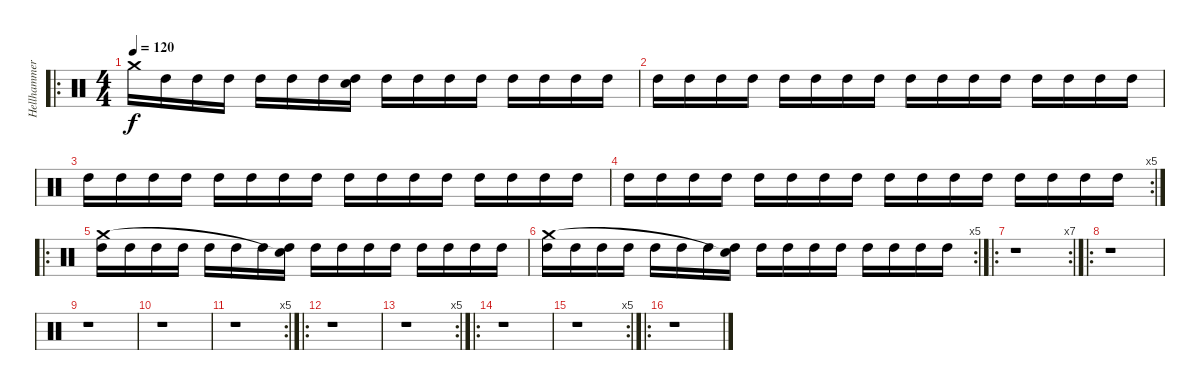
\track ("Hellhammer - Drums" "Hellhammer") {instrument percussion}
\staff {score}
\articulation defaults
\ro
\ts (4 4)
\tempo 120
\clef neutral
\ks c "Crash medium (hit)".16{dy f} "High Tom (hit)".16 "High Tom (hit)".16 "High Tom (hit)".16 "High Tom (hit)".16 "High Tom (hit)".16 "High Tom (hit)".16
("High Tom (hit)" "Snare (hit)").16 "High Tom (hit)".16 "High Tom (hit)".16 "High Tom (hit)".16 "High Tom (hit)".16 "High Tom (hit)".16 "High Tom (hit)".16 "High Tom (hit)".16 "High Tom (hit)".16 |
"High Tom (hit)".16 "High Tom (hit)".16 "High Tom (hit)".16 "High Tom (hit)".16 "High Tom (hit)".16 "High Tom (hit)".16 "High Tom (hit)".16 "High Tom (hit)".16 "High Tom (hit)".16 "High Tom (hit)".16 "High Tom (hit)".16 "High Tom (hit)".16 "High Tom (hit)".16 "High Tom (hit)".16 "High Tom (hit)".16 "High Tom (hit)".16 |
"High Tom (hit)".16 "High Tom (hit)".16 "High Tom (hit)".16 "High Tom (hit)".16 "High Tom (hit)".16 "High Tom (hit)".16 "High Tom (hit)".16 "High Tom (hit)".16 "High Tom (hit)".16 "High Tom (hit)".16 "High Tom (hit)".16 "High Tom (hit)".16 "High Tom (hit)".16 "High Tom (hit)".16 "High Tom (hit)".16 "High Tom (hit)".16 |
\rc 5 "High Tom (hit)".16 "High Tom (hit)".16 "High Tom (hit)".16 "High Tom (hit)".16 "High Tom (hit)".16 "High Tom (hit)".16 "High Tom (hit)".16 "High Tom (hit)".16 "High Tom (hit)".16 "High Tom (hit)".16 "High Tom (hit)".16 "High Tom (hit)".16 "High Tom (hit)".16 "High Tom (hit)".16 "High Tom (hit)".16 "High Tom (hit)".16
|
\ro
("High Tom (hit)" "Crash medium (hit)").16 "High Tom (hit)".16 "High Tom (hit)".16 "High Tom (hit)".16 "High Tom (hit)".16 "High Tom (hit)".16 "High Tom (hit)".16 ("High Tom (hit)" "Snare (hit)"{t}).16 "High Tom (hit)".16 "High Tom (hit)".16 "High Tom (hit)".16 "High Tom (hit)".16 "High Tom (hit)".16 "High Tom (hit)".16 "High Tom (hit)".16 "High Tom (hit)".16 |
\rc 5
("High Tom (hit)" "Crash medium (hit)").16 "High Tom (hit)".16 "High Tom (hit)".16 "High Tom (hit)".16 "High Tom (hit)".16 "High Tom (hit)".16 "High Tom (hit)".16 ("High Tom (hit)" "Snare (hit)"{t}).16 "High Tom (hit)".16 "High Tom (hit)".16 "High Tom (hit)".16 "High Tom (hit)".16 "High Tom (hit)".16 "High Tom (hit)".16 "High Tom (hit)".16 "High Tom (hit)".16 |
\ro
\rc 7
r.1 |
\ro
r.1 |
r.1 |
r.1 |
\rc 5
r.1 |
\ro
r.1 |
\rc 5
r.1 |
\ro
r.1 |
\rc 5
r.1 |
\ro
r.1
